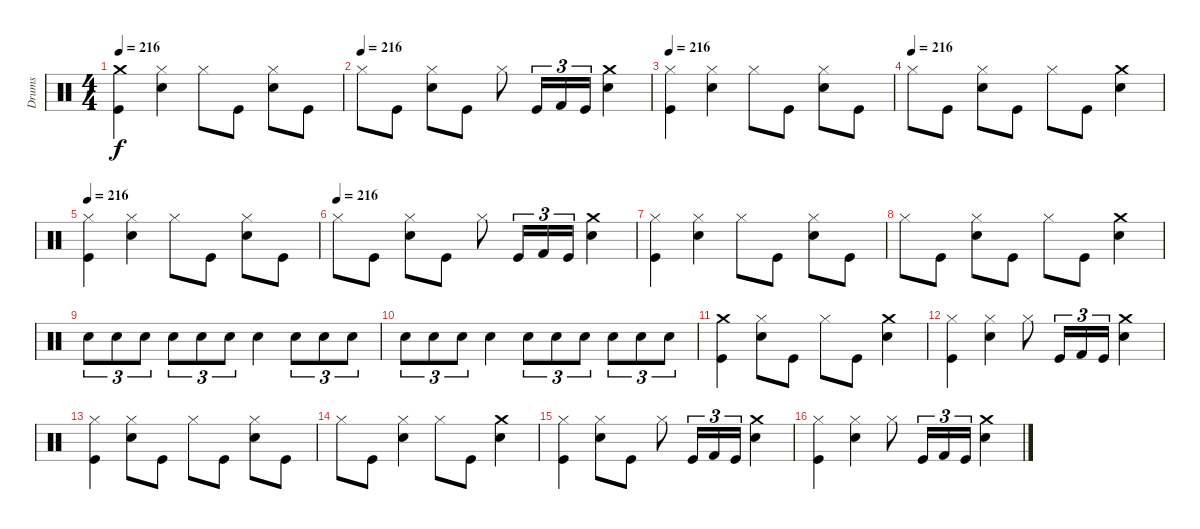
\track ("Drums" "Drums") {instrument percussion}
\staff {score}
\articulation defaults
\ts (4 4)
\tempo 216
\clef neutral
\ks c
("Crash medium (hit)" "Kick (hit)").4{dy f} ("Hi-Hat (closed)" "Snare (hit) 2").4 "Hi-Hat (closed)".8 "Kick (hit)".8 ("Snare (hit) 2" "Hi-Hat (closed)").8 "Kick (hit)".8 |
\tempo (216)
"Hi-Hat (closed)".8 "Kick (hit)".8 ("Snare (hit) 2" "Hi-Hat (closed)").8 "Kick (hit)".8 "Hi-Hat (closed)".8 "Kick (hit)".16{tu (3 2)} "Kick (hit) 2".16{tu (3 2)} "Kick (hit)".16{tu (3 2)} ("Crash medium (hit)" "Snare (hit) 2").4 |
\tempo 216
("Kick (hit)" "Hi-Hat (closed)").4 ("Hi-Hat (closed)" "Snare (hit) 2").4 "Hi-Hat (closed)".8 "Kick (hit)".8 ("Snare (hit) 2" "Hi-Hat (closed)").8 "Kick (hit)".8 |
\tempo (216)
"Hi-Hat (closed)".8 "Kick (hit)".8 ("Snare (hit) 2" "Hi-Hat (closed)").8 "Kick (hit)".8 "Hi-Hat (closed)".8 "Kick (hit)".8 ("Crash medium (hit)" "Snare (hit) 2").4 |
\tempo 216
("Hi-Hat (closed)" "Kick (hit)").4 ("Snare (hit) 2" "Hi-Hat (closed)").4 "Hi-Hat (closed)".8 "Kick (hit)".8 ("Snare (hit) 2" "Hi-Hat (closed)").8 "Kick (hit)".8 |
\tempo (216)
"Hi-Hat (closed)".8 "Kick (hit)".8 ("Snare (hit) 2" "Hi-Hat (closed)").8 "Kick (hit)".8 "Hi-Hat (closed)".8 "Kick (hit)".16{tu (3 2)} "Kick (hit) 2".16{tu (3 2)} "Kick (hit)".16{tu (3 2)} ("Crash medium (hit)" "Snare (hit) 2").4 |
("Kick (hit)" "Hi-Hat (closed)").4 ("Snare (hit) 2" "Hi-Hat (closed)").4 "Hi-Hat (closed)".8 "Kick (hit)".8 ("Snare (hit) 2" "Hi-Hat (closed)").8 "Kick (hit)".8 |
"Hi-Hat (closed)".8 "Kick (hit)".8 ("Snare (hit) 2" "Hi-Hat (closed)").8 "Kick (hit)".8 "Hi-Hat (closed)".8 "Kick (hit)".8 ("Crash medium (hit)" "Snare (hit) 2").4 |
"Snare (hit) 2".8{tu (3 2)} "Snare (hit) 2".8{tu (3 2)} "Snare (hit) 2".8{tu (3 2)} "Snare (hit) 2".8{tu (3 2)} "Snare (hit) 2".8{tu (3 2)} "Snare (hit) 2".8{tu (3 2)} "Snare (hit) 2".4 "Snare (hit) 2".8{tu (3 2)} "Snare (hit) 2".8{tu (3 2)} "Snare (hit) 2".8{tu (3 2)} |
"Snare (hit) 2".8{tu (3 2)} "Snare (hit) 2".8{tu (3 2)} "Snare (hit) 2".8{tu (3 2)} "Snare (hit) 2".4 "Snare (hit) 2".8{tu (3 2)} "Snare (hit) 2".8{tu (3 2)} "Snare (hit) 2".8{tu (3 2)} "Snare (hit) 2".8{tu (3 2)} "Snare (hit) 2".8{tu (3 2)} "Snare (hit) 2".8{tu (3 2)} |
("Kick (hit)" "Crash medium (hit)").4 ("Hi-Hat (closed)" "Snare (hit) 2").8 "Kick (hit)".8 "Hi-Hat (closed)".8 "Kick (hit)".8 ("Crash medium (hit)" "Snare (hit) 2").4 |
("Hi-Hat (closed)" "Kick (hit)").4 ("Snare (hit) 2" "Hi-Hat (closed)").4 "Hi-Hat (closed)".8 "Kick (hit)".16{tu (3 2)} "Kick (hit) 2".16{tu (3 2)} "Kick (hit)".16{tu (3 2)} ("Crash medium (hit)" "Snare (hit) 2").4 |
("Hi-Hat (closed)" "Kick (hit)").4 ("Snare (hit) 2" "Hi-Hat (closed)").8 "Kick (hit)".8 "Hi-Hat (closed)".8 "Kick (hit)".8 ("Snare (hit) 2" "Hi-Hat (closed)").8 "Kick (hit)".8 |
"Hi-Hat (closed)".8 "Kick (hit)".8 ("Snare (hit) 2" "Hi-Hat (closed)").4 "Hi-Hat (closed)".8 "Kick (hit)".8 ("Crash medium (hit)" "Snare (hit) 2").4 |
("Kick (hit)" "Hi-Hat (closed)").4 ("Snare (hit) 2" "Hi-Hat (closed)").8 "Kick (hit)".8 "Hi-Hat (closed)".8 "Kick (hit)".16{tu (3 2)} "Kick (hit) 2".16{tu (3 2)} "Kick (hit)".16{tu (3 2)} ("Crash medium (hit)" "Snare (hit) 2").4 |
("Hi-Hat (closed)" "Kick (hit)").4 ("Snare (hit) 2" "Hi-Hat (closed)").4 "Hi-Hat (closed)".8 "Kick (hit)".16{tu (3 2)} "Kick (hit) 2".16{tu (3 2)} "Kick (hit)".16{tu (3 2)} ("Crash medium (hit)" "Snare (hit) 2").4
